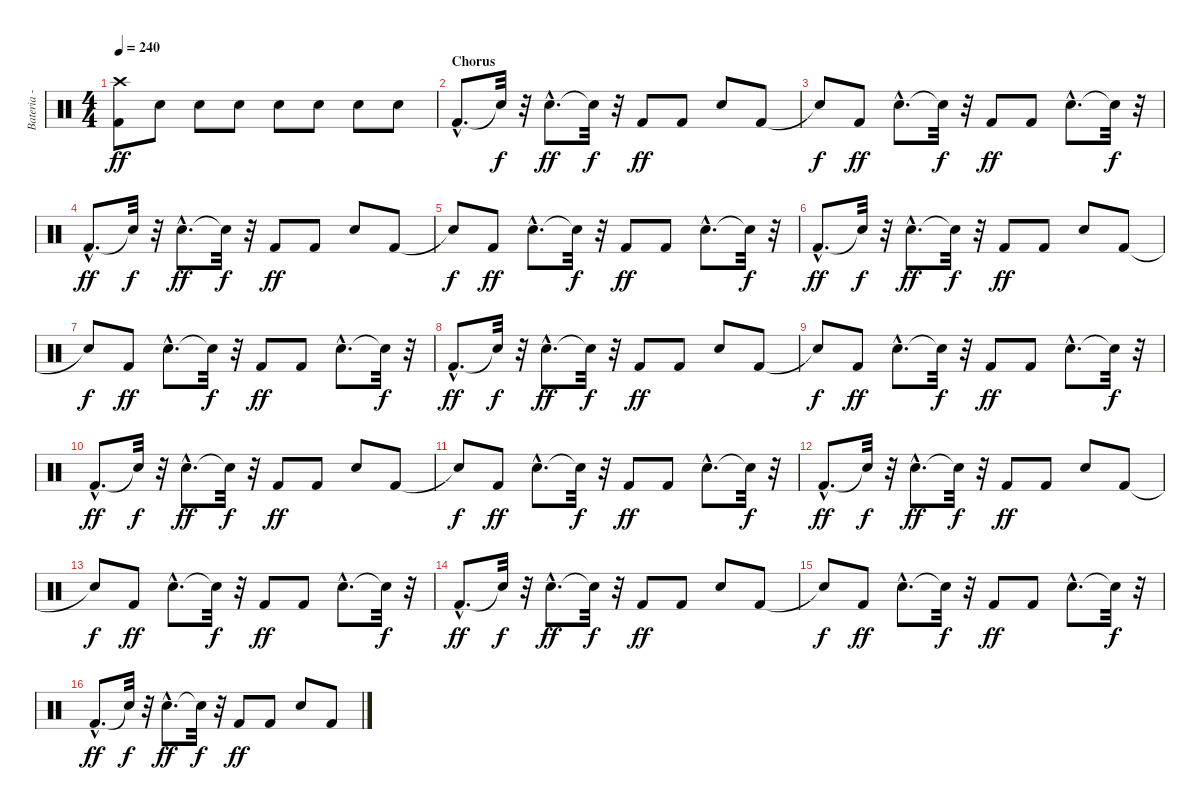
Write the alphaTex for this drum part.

\track ("Bateria - Larzon" "Bateria - ") {instrument percussion}
\staff {score}
\articulation defaults
\ts (4 4)
\tempo 240
\clef neutral
\ks c
("Kick (hit) 2" "Crash high (hit)").8{dy ff} "Electric Snare (hit)".8 "Electric Snare (hit)".8 "Electric Snare (hit)".8 "Electric Snare (hit)".8 "Electric Snare (hit)".8 "Electric Snare (hit)".8 "Electric Snare (hit)".8 |
\section ("" "Chorus")
"Kick (hit) 2"{hac}.8{d} "Snare (hit)"{t}.32{dy f} r.32 "Electric Snare (hit)"{hac}.8{d dy ff} "Snare (hit)"{t}.32{dy f} r.32 "Kick (hit) 2".8{dy ff} "Kick (hit) 2".8 "Electric Snare (hit)".8 "Kick (hit) 2".8 |
"Snare (hit)"{t}.8{dy f} "Kick (hit) 2".8{dy ff} "Electric Snare (hit)"{hac}.8{d} "Snare (hit)"{t}.32{dy f} r.32 "Kick (hit) 2".8{dy ff} "Kick (hit) 2".8 "Electric Snare (hit)"{hac}.8{d} "Snare (hit)"{t}.32{dy f} r.32 |
"Kick (hit) 2"{hac}.8{d dy ff} "Snare (hit)"{t}.32{dy f} r.32 "Electric Snare (hit)"{hac}.8{d dy ff} "Snare (hit)"{t}.32{dy f} r.32 "Kick (hit) 2".8{dy ff} "Kick (hit) 2".8 "Electric Snare (hit)".8 "Kick (hit) 2".8 |
"Snare (hit)"{t}.8{dy f} "Kick (hit) 2".8{dy ff} "Electric Snare (hit)"{hac}.8{d} "Snare (hit)"{t}.32{dy f} r.32 "Kick (hit) 2".8{dy ff} "Kick (hit) 2".8 "Electric Snare (hit)"{hac}.8{d} "Snare (hit)"{t}.32{dy f} r.32 |
"Kick (hit) 2"{hac}.8{d dy ff} "Snare (hit)"{t}.32{dy f} r.32 "Electric Snare (hit)"{hac}.8{d dy ff} "Snare (hit)"{t}.32{dy f} r.32 "Kick (hit) 2".8{dy ff} "Kick (hit) 2".8 "Electric Snare (hit)".8 "Kick (hit) 2".8 |
"Snare (hit)"{t}.8{dy f} "Kick (hit) 2".8{dy ff} "Electric Snare (hit)"{hac}.8{d} "Snare (hit)"{t}.32{dy f} r.32 "Kick (hit) 2".8{dy ff} "Kick (hit) 2".8 "Electric Snare (hit)"{hac}.8{d} "Snare (hit)"{t}.32{dy f} r.32 |
"Kick (hit) 2"{hac}.8{d dy ff} "Snare (hit)"{t}.32{dy f} r.32 "Electric Snare (hit)"{hac}.8{d dy ff} "Snare (hit)"{t}.32{dy f} r.32 "Kick (hit) 2".8{dy ff} "Kick (hit) 2".8 "Electric Snare (hit)".8 "Kick (hit) 2".8 |
"Snare (hit)"{t}.8{dy f} "Kick (hit) 2".8{dy ff} "Electric Snare (hit)"{hac}.8{d} "Snare (hit)"{t}.32{dy f} r.32 "Kick (hit) 2".8{dy ff} "Kick (hit) 2".8 "Electric Snare (hit)"{hac}.8{d} "Snare (hit)"{t}.32{dy f} r.32 |
"Kick (hit) 2"{hac}.8{d dy ff} "Snare (hit)"{t}.32{dy f} r.32 "Electric Snare (hit)"{hac}.8{d dy ff} "Snare (hit)"{t}.32{dy f} r.32 "Kick (hit) 2".8{dy ff} "Kick (hit) 2".8 "Electric Snare (hit)".8 "Kick (hit) 2".8 |
"Snare (hit)"{t}.8{dy f} "Kick (hit) 2".8{dy ff} "Electric Snare (hit)"{hac}.8{d} "Snare (hit)"{t}.32{dy f} r.32 "Kick (hit) 2".8{dy ff} "Kick (hit) 2".8 "Electric Snare (hit)"{hac}.8{d} "Snare (hit)"{t}.32{dy f} r.32 |
"Kick (hit) 2"{hac}.8{d dy ff} "Snare (hit)"{t}.32{dy f} r.32 "Electric Snare (hit)"{hac}.8{d dy ff} "Snare (hit)"{t}.32{dy f} r.32 "Kick (hit) 2".8{dy ff} "Kick (hit) 2".8 "Electric Snare (hit)".8 "Kick (hit) 2".8 |
"Snare (hit)"{t}.8{dy f} "Kick (hit) 2".8{dy ff} "Electric Snare (hit)"{hac}.8{d} "Snare (hit)"{t}.32{dy f} r.32 "Kick (hit) 2".8{dy ff} "Kick (hit) 2".8 "Electric Snare (hit)"{hac}.8{d} "Snare (hit)"{t}.32{dy f} r.32 |
"Kick (hit) 2"{hac}.8{d dy ff} "Snare (hit)"{t}.32{dy f} r.32 "Electric Snare (hit)"{hac}.8{d dy ff} "Snare (hit)"{t}.32{dy f} r.32 "Kick (hit) 2".8{dy ff} "Kick (hit) 2".8 "Electric Snare (hit)".8 "Kick (hit) 2".8 |
"Snare (hit)"{t}.8{dy f} "Kick (hit) 2".8{dy ff} "Electric Snare (hit)"{hac}.8{d} "Snare (hit)"{t}.32{dy f} r.32 "Kick (hit) 2".8{dy ff} "Kick (hit) 2".8 "Electric Snare (hit)"{hac}.8{d} "Snare (hit)"{t}.32{dy f} r.32 |
"Kick (hit) 2"{hac}.8{d dy ff} "Snare (hit)"{t}.32{dy f} r.32 "Electric Snare (hit)"{hac}.8{d dy ff} "Snare (hit)"{t}.32{dy f} r.32 "Kick (hit) 2".8{dy ff} "Kick (hit) 2".8 "Electric Snare (hit)".8 "Kick (hit) 2".8
